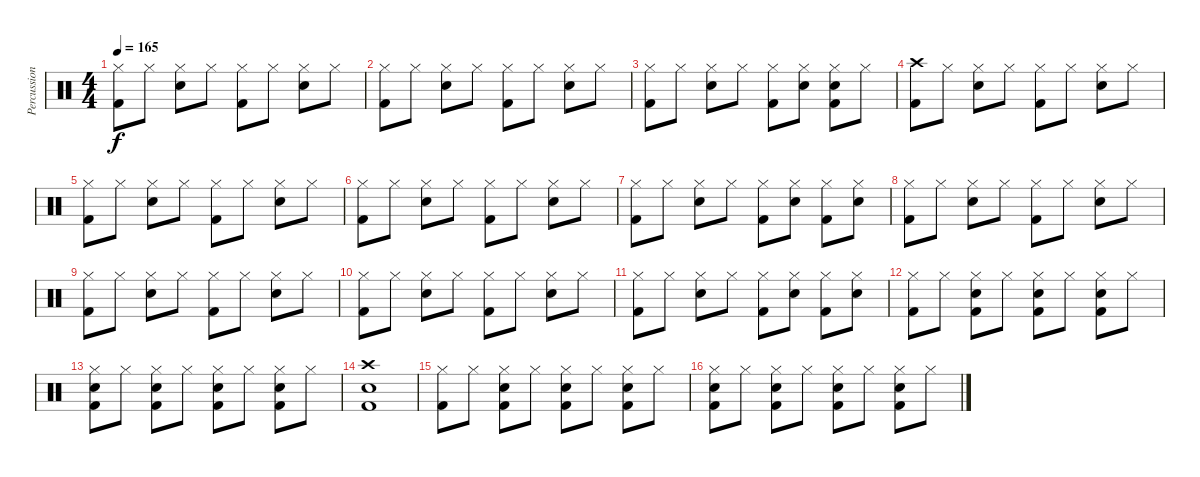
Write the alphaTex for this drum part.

\track ("Percussion" "Percussion") {instrument percussion}
\staff {score}
\articulation defaults
\ts (4 4)
\tempo 165
\clef neutral
\ks c
("Hi-Hat (closed)" "Kick (hit) 2").8{dy f} "Hi-Hat (closed)".8 ("Hi-Hat (closed)" "Snare (hit) 2").8 "Hi-Hat (closed)".8 ("Hi-Hat (closed)" "Kick (hit) 2").8 "Hi-Hat (closed)".8 ("Hi-Hat (closed)" "Snare (hit) 2").8 "Hi-Hat (closed)".8 |
("Hi-Hat (closed)" "Kick (hit) 2").8 "Hi-Hat (closed)".8 ("Hi-Hat (closed)" "Snare (hit) 2").8 "Hi-Hat (closed)".8 ("Hi-Hat (closed)" "Kick (hit) 2").8 "Hi-Hat (closed)".8 ("Hi-Hat (closed)" "Snare (hit) 2").8 "Hi-Hat (closed)".8 |
("Hi-Hat (closed)" "Kick (hit) 2").8 "Hi-Hat (closed)".8 ("Hi-Hat (closed)" "Snare (hit) 2").8 "Hi-Hat (closed)".8 ("Hi-Hat (closed)" "Kick (hit) 2").8 ("Hi-Hat (closed)" "Snare (hit) 2").8 ("Hi-Hat (closed)" "Snare (hit) 2" "Kick (hit) 2").8 "Hi-Hat (closed)".8 |
("Crash high (hit)" "Kick (hit) 2").8 "Hi-Hat (closed)".8 ("Hi-Hat (closed)" "Snare (hit) 2").8 "Hi-Hat (closed)".8 ("Hi-Hat (closed)" "Kick (hit) 2").8 "Hi-Hat (closed)".8 ("Hi-Hat (closed)" "Snare (hit) 2").8 "Hi-Hat (closed)".8 |
("Hi-Hat (closed)" "Kick (hit) 2").8 "Hi-Hat (closed)".8 ("Hi-Hat (closed)" "Snare (hit) 2").8 "Hi-Hat (closed)".8 ("Hi-Hat (closed)" "Kick (hit) 2").8 "Hi-Hat (closed)".8 ("Hi-Hat (closed)" "Snare (hit) 2").8 "Hi-Hat (closed)".8 |
("Hi-Hat (closed)" "Kick (hit) 2").8 "Hi-Hat (closed)".8 ("Hi-Hat (closed)" "Snare (hit) 2").8 "Hi-Hat (closed)".8 ("Hi-Hat (closed)" "Kick (hit) 2").8 "Hi-Hat (closed)".8 ("Hi-Hat (closed)" "Snare (hit) 2").8 "Hi-Hat (closed)".8 |
("Hi-Hat (closed)" "Kick (hit) 2").8 "Hi-Hat (closed)".8 ("Hi-Hat (closed)" "Snare (hit) 2").8 "Hi-Hat (closed)".8 ("Hi-Hat (closed)" "Kick (hit) 2").8 ("Hi-Hat (closed)" "Snare (hit) 2").8 ("Hi-Hat (closed)" "Kick (hit) 2").8 ("Hi-Hat (closed)" "Snare (hit) 2").8 |
("Hi-Hat (closed)" "Kick (hit) 2").8 "Hi-Hat (closed)".8 ("Hi-Hat (closed)" "Snare (hit) 2").8 "Hi-Hat (closed)".8 ("Hi-Hat (closed)" "Kick (hit) 2").8 "Hi-Hat (closed)".8 ("Hi-Hat (closed)" "Snare (hit) 2").8 "Hi-Hat (closed)".8 |
("Hi-Hat (closed)" "Kick (hit) 2").8 "Hi-Hat (closed)".8 ("Hi-Hat (closed)" "Snare (hit) 2").8 "Hi-Hat (closed)".8 ("Hi-Hat (closed)" "Kick (hit) 2").8 "Hi-Hat (closed)".8 ("Hi-Hat (closed)" "Snare (hit) 2").8 "Hi-Hat (closed)".8 |
("Hi-Hat (closed)" "Kick (hit) 2").8 "Hi-Hat (closed)".8 ("Hi-Hat (closed)" "Snare (hit) 2").8 "Hi-Hat (closed)".8 ("Hi-Hat (closed)" "Kick (hit) 2").8 "Hi-Hat (closed)".8 ("Hi-Hat (closed)" "Snare (hit) 2").8 "Hi-Hat (closed)".8 |
("Hi-Hat (closed)" "Kick (hit) 2").8 "Hi-Hat (closed)".8 ("Hi-Hat (closed)" "Snare (hit) 2").8 "Hi-Hat (closed)".8 ("Hi-Hat (closed)" "Kick (hit) 2").8 ("Hi-Hat (closed)" "Snare (hit) 2").8 ("Hi-Hat (closed)" "Kick (hit) 2").8 ("Hi-Hat (closed)" "Snare (hit) 2").8 |
("Hi-Hat (closed)" "Kick (hit) 2").8 "Hi-Hat (closed)".8 ("Hi-Hat (closed)" "Snare (hit) 2" "Kick (hit) 2").8 "Hi-Hat (closed)".8 ("Hi-Hat (closed)" "Snare (hit) 2" "Kick (hit) 2").8 "Hi-Hat (closed)".8 ("Hi-Hat (closed)" "Snare (hit) 2" "Kick (hit) 2").8 "Hi-Hat (closed)".8 |
("Hi-Hat (closed)" "Snare (hit) 2" "Kick (hit) 2").8 "Hi-Hat (closed)".8 ("Hi-Hat (closed)" "Snare (hit) 2" "Kick (hit) 2").8 "Hi-Hat (closed)".8 ("Hi-Hat (closed)" "Snare (hit) 2" "Kick (hit) 2").8 "Hi-Hat (closed)".8 ("Hi-Hat (closed)" "Snare (hit) 2" "Kick (hit) 2").8 "Hi-Hat (closed)".8 |
("Crash high (hit)" "Snare (hit) 2" "Kick (hit) 2").1 |
("Hi-Hat (closed)" "Kick (hit) 2").8 "Hi-Hat (closed)".8 ("Hi-Hat (closed)" "Snare (hit) 2" "Kick (hit) 2").8 "Hi-Hat (closed)".8 ("Hi-Hat (closed)" "Snare (hit) 2" "Kick (hit) 2").8 "Hi-Hat (closed)".8 ("Hi-Hat (closed)" "Snare (hit) 2" "Kick (hit) 2").8 "Hi-Hat (closed)".8 |
("Hi-Hat (closed)" "Snare (hit) 2" "Kick (hit) 2").8 "Hi-Hat (closed)".8 ("Hi-Hat (closed)" "Snare (hit) 2" "Kick (hit) 2").8 "Hi-Hat (closed)".8 ("Hi-Hat (closed)" "Snare (hit) 2" "Kick (hit) 2").8 "Hi-Hat (closed)".8 ("Hi-Hat (closed)" "Snare (hit) 2" "Kick (hit) 2").8 "Hi-Hat (closed)".8
